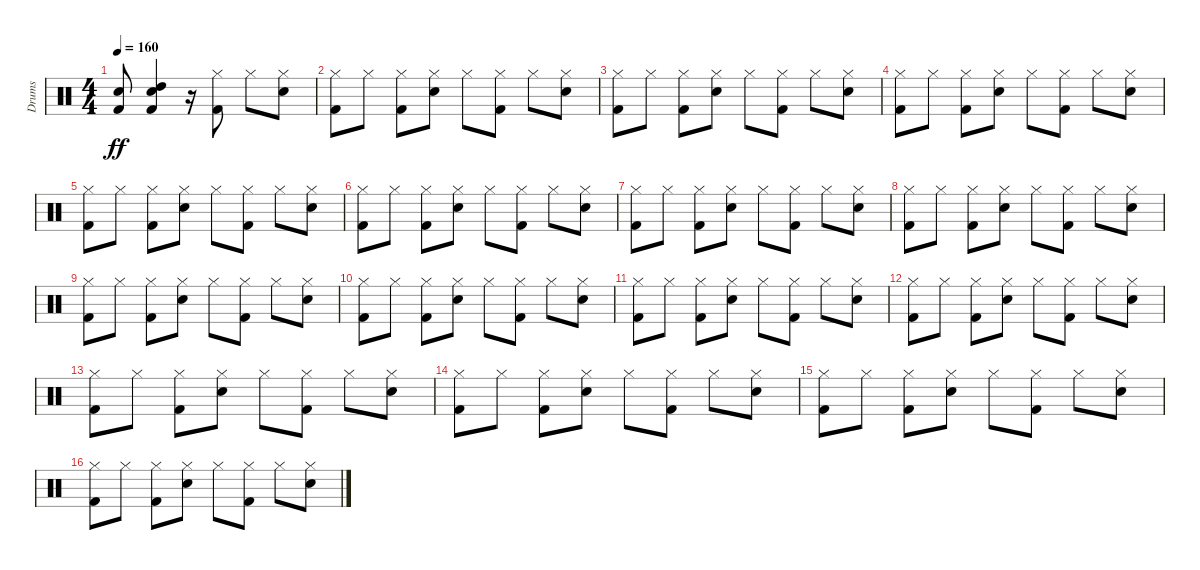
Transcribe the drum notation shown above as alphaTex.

\track ("Drums" "Drums") {instrument percussion}
\staff {score}
\articulation defaults
\ts (4 4)
\tempo 160
\clef neutral
\ks c
("Kick (hit) 2" "Hand Clap (hit)").8{dy ff} ("Kick (hit) 2" "Hand Clap (hit)" "High Tom (hit)").4 r.16 ("Kick (hit) 2" "Hi-Hat (closed)").8 "Hi-Hat (closed)".8 ("Snare (hit) 2" "Hi-Hat (closed)").8 |
("Kick (hit) 2" "Hi-Hat (closed)").8 "Hi-Hat (closed)".8 ("Kick (hit) 2" "Hi-Hat (closed)").8 ("Snare (hit) 2" "Hi-Hat (closed)").8 "Hi-Hat (closed)".8 ("Kick (hit) 2" "Hi-Hat (closed)").8 "Hi-Hat (closed)".8 ("Snare (hit) 2" "Hi-Hat (closed)").8 |
("Kick (hit) 2" "Hi-Hat (closed)").8 "Hi-Hat (closed)".8 ("Kick (hit) 2" "Hi-Hat (closed)").8 ("Snare (hit) 2" "Hi-Hat (closed)").8 "Hi-Hat (closed)".8 ("Kick (hit) 2" "Hi-Hat (closed)").8 "Hi-Hat (closed)".8 ("Snare (hit) 2" "Hi-Hat (closed)").8 |
("Kick (hit) 2" "Hi-Hat (closed)").8 "Hi-Hat (closed)".8 ("Kick (hit) 2" "Hi-Hat (closed)").8 ("Snare (hit) 2" "Hi-Hat (closed)").8 "Hi-Hat (closed)".8 ("Kick (hit) 2" "Hi-Hat (closed)").8 "Hi-Hat (closed)".8 ("Snare (hit) 2" "Hi-Hat (closed)").8 |
("Kick (hit) 2" "Hi-Hat (closed)").8 "Hi-Hat (closed)".8 ("Kick (hit) 2" "Hi-Hat (closed)").8 ("Snare (hit) 2" "Hi-Hat (closed)").8 "Hi-Hat (closed)".8 ("Kick (hit) 2" "Hi-Hat (closed)").8 "Hi-Hat (closed)".8 ("Snare (hit) 2" "Hi-Hat (closed)").8 |
("Kick (hit) 2" "Hi-Hat (closed)").8 "Hi-Hat (closed)".8 ("Kick (hit) 2" "Hi-Hat (closed)").8 ("Snare (hit) 2" "Hi-Hat (closed)").8 "Hi-Hat (closed)".8 ("Kick (hit) 2" "Hi-Hat (closed)").8 "Hi-Hat (closed)".8 ("Snare (hit) 2" "Hi-Hat (closed)").8 |
("Kick (hit) 2" "Hi-Hat (closed)").8 "Hi-Hat (closed)".8 ("Kick (hit) 2" "Hi-Hat (closed)").8 ("Snare (hit) 2" "Hi-Hat (closed)").8 "Hi-Hat (closed)".8 ("Kick (hit) 2" "Hi-Hat (closed)").8 "Hi-Hat (closed)".8 ("Snare (hit) 2" "Hi-Hat (closed)").8 |
("Kick (hit) 2" "Hi-Hat (closed)").8 "Hi-Hat (closed)".8 ("Kick (hit) 2" "Hi-Hat (closed)").8 ("Snare (hit) 2" "Hi-Hat (closed)").8 "Hi-Hat (closed)".8 ("Kick (hit) 2" "Hi-Hat (closed)").8 "Hi-Hat (closed)".8 ("Snare (hit) 2" "Hi-Hat (closed)").8 |
("Kick (hit) 2" "Hi-Hat (closed)").8 "Hi-Hat (closed)".8 ("Kick (hit) 2" "Hi-Hat (closed)").8 ("Snare (hit) 2" "Hi-Hat (closed)").8 "Hi-Hat (closed)".8 ("Kick (hit) 2" "Hi-Hat (closed)").8 "Hi-Hat (closed)".8 ("Snare (hit) 2" "Hi-Hat (closed)").8 |
("Kick (hit) 2" "Hi-Hat (closed)").8 "Hi-Hat (closed)".8 ("Kick (hit) 2" "Hi-Hat (closed)").8 ("Snare (hit) 2" "Hi-Hat (closed)").8 "Hi-Hat (closed)".8 ("Kick (hit) 2" "Hi-Hat (closed)").8 "Hi-Hat (closed)".8 ("Snare (hit) 2" "Hi-Hat (closed)").8 |
("Kick (hit) 2" "Hi-Hat (closed)").8 "Hi-Hat (closed)".8 ("Kick (hit) 2" "Hi-Hat (closed)").8 ("Snare (hit) 2" "Hi-Hat (closed)").8 "Hi-Hat (closed)".8 ("Kick (hit) 2" "Hi-Hat (closed)").8 "Hi-Hat (closed)".8 ("Snare (hit) 2" "Hi-Hat (closed)").8 |
("Kick (hit) 2" "Hi-Hat (closed)").8 "Hi-Hat (closed)".8 ("Kick (hit) 2" "Hi-Hat (closed)").8 ("Snare (hit) 2" "Hi-Hat (closed)").8 "Hi-Hat (closed)".8 ("Kick (hit) 2" "Hi-Hat (closed)").8 "Hi-Hat (closed)".8 ("Snare (hit) 2" "Hi-Hat (closed)").8 |
("Kick (hit) 2" "Hi-Hat (closed)").8 "Hi-Hat (closed)".8 ("Kick (hit) 2" "Hi-Hat (closed)").8 ("Snare (hit) 2" "Hi-Hat (closed)").8 "Hi-Hat (closed)".8 ("Kick (hit) 2" "Hi-Hat (closed)").8 "Hi-Hat (closed)".8 ("Snare (hit) 2" "Hi-Hat (closed)").8 |
("Kick (hit) 2" "Hi-Hat (closed)").8 "Hi-Hat (closed)".8 ("Kick (hit) 2" "Hi-Hat (closed)").8 ("Snare (hit) 2" "Hi-Hat (closed)").8 "Hi-Hat (closed)".8 ("Kick (hit) 2" "Hi-Hat (closed)").8 "Hi-Hat (closed)".8 ("Snare (hit) 2" "Hi-Hat (closed)").8 |
("Kick (hit) 2" "Hi-Hat (closed)").8 "Hi-Hat (closed)".8 ("Kick (hit) 2" "Hi-Hat (closed)").8 ("Snare (hit) 2" "Hi-Hat (closed)").8 "Hi-Hat (closed)".8 ("Kick (hit) 2" "Hi-Hat (closed)").8 "Hi-Hat (closed)".8 ("Snare (hit) 2" "Hi-Hat (closed)").8 |
("Kick (hit) 2" "Hi-Hat (closed)").8 "Hi-Hat (closed)".8 ("Kick (hit) 2" "Hi-Hat (closed)").8 ("Snare (hit) 2" "Hi-Hat (closed)").8 "Hi-Hat (closed)".8 ("Kick (hit) 2" "Hi-Hat (closed)").8 "Hi-Hat (closed)".8 ("Snare (hit) 2" "Hi-Hat (closed)").8
